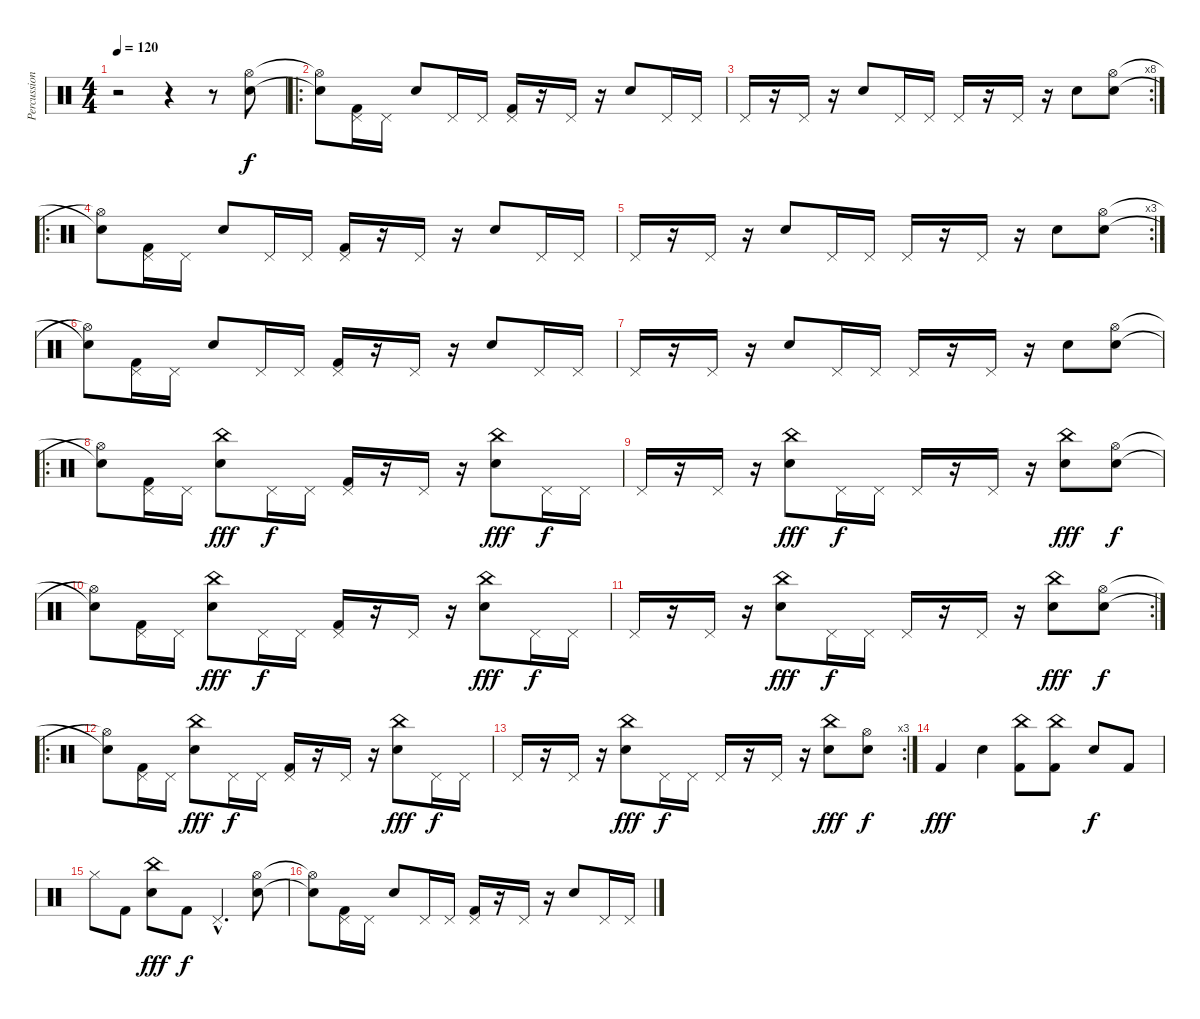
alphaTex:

\track ("Percussion" "Percussion") {instrument percussion}
\staff {score}
\articulation defaults
\ts (4 4)
\tempo 120
\clef neutral
\ks c
r.2{dy f} r.4 r.8 ("Electric Snare (hit)" "Hi-Hat (open)").8 |
\ro
("Electric Snare (hit)"{t} "Hi-Hat (open)"{t}).8 ("Pedal Hi-Hat (hit)" "Kick (hit) 2").16 "Pedal Hi-Hat (hit)".16 "Snare (hit) 2".8 "Pedal Hi-Hat (hit)".16 "Pedal Hi-Hat (hit)".16 ("Pedal Hi-Hat (hit)" "Kick (hit) 2").16 r.16 "Pedal Hi-Hat (hit)".16 r.16 "Snare (hit) 2".8 "Pedal Hi-Hat (hit)".16 "Pedal Hi-Hat (hit)".16 |
\rc 8 "Pedal Hi-Hat (hit)".16
r.16 "Pedal Hi-Hat (hit)".16 r.16 "Snare (hit) 2".8 "Pedal Hi-Hat (hit)".16 "Pedal Hi-Hat (hit)".16 "Pedal Hi-Hat (hit)".16 r.16 "Pedal Hi-Hat (hit)".16 r.16 "Snare (hit) 2".8 ("Hi-Hat (open)" "Electric Snare (hit)").8 |
\ro
("Electric Snare (hit)"{t} "Hi-Hat (open)"{t}).8 ("Pedal Hi-Hat (hit)" "Kick (hit) 2").16 "Pedal Hi-Hat (hit)".16 "Snare (hit) 2".8 "Pedal Hi-Hat (hit)".16 "Pedal Hi-Hat (hit)".16 ("Pedal Hi-Hat (hit)" "Kick (hit) 2").16 r.16 "Pedal Hi-Hat (hit)".16 r.16 "Snare (hit) 2".8 "Pedal Hi-Hat (hit)".16 "Pedal Hi-Hat (hit)".16 |
\rc 3 "Pedal Hi-Hat (hit)".16
r.16 "Pedal Hi-Hat (hit)".16 r.16 "Snare (hit) 2".8 "Pedal Hi-Hat (hit)".16 "Pedal Hi-Hat (hit)".16 "Pedal Hi-Hat (hit)".16 r.16 "Pedal Hi-Hat (hit)".16 r.16 "Snare (hit) 2".8 ("Hi-Hat (open)" "Electric Snare (hit)").8 |
("Electric Snare (hit)"{t} "Hi-Hat (open)"{t}).8 ("Pedal Hi-Hat (hit)" "Kick (hit) 2").16 "Pedal Hi-Hat (hit)".16 "Snare (hit) 2".8 "Pedal Hi-Hat (hit)".16 "Pedal Hi-Hat (hit)".16 ("Pedal Hi-Hat (hit)" "Kick (hit) 2").16 r.16 "Pedal Hi-Hat (hit)".16 r.16 "Snare (hit) 2".8 "Pedal Hi-Hat (hit)".16 "Pedal Hi-Hat (hit)".16 |
"Pedal Hi-Hat (hit)".16 r.16 "Pedal Hi-Hat (hit)".16 r.16 "Snare (hit) 2".8 "Pedal Hi-Hat (hit)".16 "Pedal Hi-Hat (hit)".16 "Pedal Hi-Hat (hit)".16 r.16 "Pedal Hi-Hat (hit)".16 r.16 "Snare (hit) 2".8 ("Hi-Hat (open)" "Electric Snare (hit)").8 |
\ro
("Electric Snare (hit)"{t} "Hi-Hat (open)"{t}).8 ("Pedal Hi-Hat (hit)" "Kick (hit) 2").16 "Pedal Hi-Hat (hit)".16 ("Snare (hit) 2" "China (hit)").8{dy fff} "Pedal Hi-Hat (hit)".16{dy f} "Pedal Hi-Hat (hit)".16 ("Pedal Hi-Hat (hit)" "Kick (hit) 2").16 r.16 "Pedal Hi-Hat (hit)".16 r.16 ("Snare (hit) 2" "China (hit)").8{dy fff} "Pedal Hi-Hat (hit)".16{dy f} "Pedal Hi-Hat (hit)".16 |
"Pedal Hi-Hat (hit)".16 r.16 "Pedal Hi-Hat (hit)".16 r.16 ("Snare (hit) 2" "China (hit)").8{dy fff} "Pedal Hi-Hat (hit)".16{dy f} "Pedal Hi-Hat (hit)".16 "Pedal Hi-Hat (hit)".16 r.16 "Pedal Hi-Hat (hit)".16 r.16 ("Snare (hit) 2" "China (hit)").8{dy fff} ("Hi-Hat (open)" "Electric Snare (hit)").8{dy f} |
("Electric Snare (hit)"{t} "Hi-Hat (open)"{t}).8 ("Pedal Hi-Hat (hit)" "Kick (hit) 2").16 "Pedal Hi-Hat (hit)".16 ("Snare (hit) 2" "China (hit)").8{dy fff} "Pedal Hi-Hat (hit)".16{dy f} "Pedal Hi-Hat (hit)".16 ("Pedal Hi-Hat (hit)" "Kick (hit) 2").16 r.16 "Pedal Hi-Hat (hit)".16 r.16 ("Snare (hit) 2" "China (hit)").8{dy fff} "Pedal Hi-Hat (hit)".16{dy f} "Pedal Hi-Hat (hit)".16 |
\rc 2 "Pedal Hi-Hat (hit)".16
r.16 "Pedal Hi-Hat (hit)".16 r.16 ("Snare (hit) 2" "China (hit)").8{dy fff} "Pedal Hi-Hat (hit)".16{dy f} "Pedal Hi-Hat (hit)".16 "Pedal Hi-Hat (hit)".16 r.16 "Pedal Hi-Hat (hit)".16 r.16 ("Snare (hit) 2" "China (hit)").8{dy fff} ("Hi-Hat (open)" "Electric Snare (hit)").8{dy f} |
\ro
("Electric Snare (hit)"{t} "Hi-Hat (open)"{t}).8 ("Pedal Hi-Hat (hit)" "Kick (hit) 2").16 "Pedal Hi-Hat (hit)".16 ("Snare (hit) 2" "China (hit)").8{dy fff} "Pedal Hi-Hat (hit)".16{dy f} "Pedal Hi-Hat (hit)".16 ("Pedal Hi-Hat (hit)" "Kick (hit) 2").16 r.16 "Pedal Hi-Hat (hit)".16 r.16 ("Snare (hit) 2" "China (hit)").8{dy fff} "Pedal Hi-Hat (hit)".16{dy f} "Pedal Hi-Hat (hit)".16 |
\rc 3 "Pedal Hi-Hat (hit)".16
r.16 "Pedal Hi-Hat (hit)".16 r.16 ("Snare (hit) 2" "China (hit)").8{dy fff} "Pedal Hi-Hat (hit)".16{dy f} "Pedal Hi-Hat (hit)".16 "Pedal Hi-Hat (hit)".16 r.16 "Pedal Hi-Hat (hit)".16 r.16 ("Snare (hit) 2" "China (hit)").8{dy fff} ("Hi-Hat (open)" "Electric Snare (hit)").8{dy f} |
"Kick (hit) 2".4{dy fff} "Snare (hit) 2".4 ("Kick (hit) 2" "China (hit)").8 ("Kick (hit) 2" "China (hit)").8 "Snare (hit) 2".8{dy f} "Kick (hit) 2".8 |
"Hi-Hat (closed)".8 "Kick (hit) 2".8 ("Snare (hit) 2" "China (hit)").8{dy fff} "Kick (hit) 2".8{dy f} "Pedal Hi-Hat (hit)"{hac}.4{d} ("Electric Snare (hit)" "Hi-Hat (open)").8 |
("Electric Snare (hit)"{t} "Hi-Hat (open)"{t}).8 ("Pedal Hi-Hat (hit)" "Kick (hit) 2").16 "Pedal Hi-Hat (hit)".16 "Snare (hit) 2".8 "Pedal Hi-Hat (hit)".16 "Pedal Hi-Hat (hit)".16 ("Pedal Hi-Hat (hit)" "Kick (hit) 2").16 r.16 "Pedal Hi-Hat (hit)".16 r.16 "Snare (hit) 2".8 "Pedal Hi-Hat (hit)".16 "Pedal Hi-Hat (hit)".16
